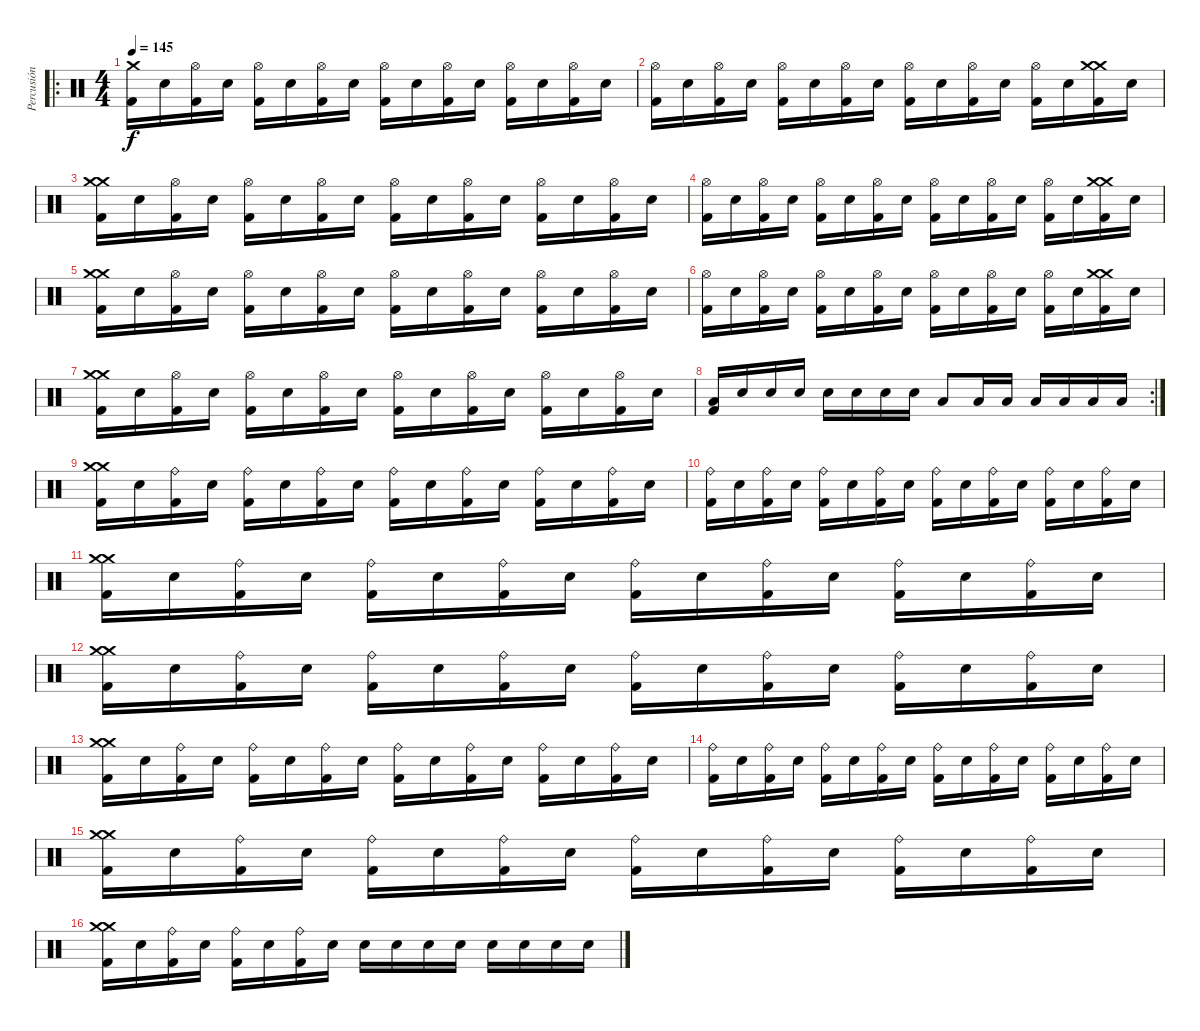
\track ("Percusión" "Percusión") {instrument percussion}
\staff {score}
\articulation defaults
\ro
\ts (4 4)
\tempo 145
\clef neutral
\ks c
("Crash medium (hit)" "Kick (hit) 2").16{dy f} "Snare (hit) 2".16 ("Hi-Hat (open)" "Kick (hit) 2").16 "Snare (hit) 2".16 ("Hi-Hat (open)" "Kick (hit) 2").16 "Snare (hit) 2".16 ("Hi-Hat (open)" "Kick (hit) 2").16 "Snare (hit) 2".16 ("Hi-Hat (open)" "Kick (hit) 2").16 "Snare (hit) 2".16 ("Hi-Hat (open)" "Kick (hit) 2").16 "Snare (hit) 2".16 ("Hi-Hat (open)" "Kick (hit) 2").16 "Snare (hit) 2".16 ("Hi-Hat (open)" "Kick (hit) 2").16 "Snare (hit) 2".16 |
("Hi-Hat (open)" "Kick (hit) 2").16 "Snare (hit) 2".16 ("Hi-Hat (open)" "Kick (hit) 2").16 "Snare (hit) 2".16 ("Hi-Hat (open)" "Kick (hit) 2").16 "Snare (hit) 2".16 ("Hi-Hat (open)" "Kick (hit) 2").16 "Snare (hit) 2".16 ("Hi-Hat (open)" "Kick (hit) 2").16 "Snare (hit) 2".16 ("Hi-Hat (open)" "Kick (hit) 2").16 "Snare (hit) 2".16 ("Hi-Hat (open)" "Kick (hit) 2").16 "Snare (hit) 2".16 ("Crash medium (hit)" "Crash medium (hit)" "Kick (hit) 2").16 "Snare (hit) 2".16 |
("Crash medium (hit)" "Crash medium (hit)" "Kick (hit) 2").16 "Snare (hit) 2".16 ("Hi-Hat (open)" "Kick (hit) 2").16 "Snare (hit) 2".16 ("Hi-Hat (open)" "Kick (hit) 2").16 "Snare (hit) 2".16 ("Hi-Hat (open)" "Kick (hit) 2").16 "Snare (hit) 2".16 ("Hi-Hat (open)" "Kick (hit) 2").16 "Snare (hit) 2".16 ("Hi-Hat (open)" "Kick (hit) 2").16 "Snare (hit) 2".16 ("Hi-Hat (open)" "Kick (hit) 2").16 "Snare (hit) 2".16 ("Hi-Hat (open)" "Kick (hit) 2").16 "Snare (hit) 2".16 |
("Hi-Hat (open)" "Kick (hit) 2").16 "Snare (hit) 2".16 ("Hi-Hat (open)" "Kick (hit) 2").16 "Snare (hit) 2".16 ("Hi-Hat (open)" "Kick (hit) 2").16 "Snare (hit) 2".16 ("Hi-Hat (open)" "Kick (hit) 2").16 "Snare (hit) 2".16 ("Hi-Hat (open)" "Kick (hit) 2").16 "Snare (hit) 2".16 ("Hi-Hat (open)" "Kick (hit) 2").16 "Snare (hit) 2".16 ("Hi-Hat (open)" "Kick (hit) 2").16 "Snare (hit) 2".16 ("Crash medium (hit)" "Crash medium (hit)" "Kick (hit) 2").16 "Snare (hit) 2".16 |
("Crash medium (hit)" "Crash medium (hit)" "Kick (hit) 2").16 "Snare (hit) 2".16 ("Hi-Hat (open)" "Kick (hit) 2").16 "Snare (hit) 2".16 ("Hi-Hat (open)" "Kick (hit) 2").16 "Snare (hit) 2".16 ("Hi-Hat (open)" "Kick (hit) 2").16 "Snare (hit) 2".16 ("Hi-Hat (open)" "Kick (hit) 2").16 "Snare (hit) 2".16 ("Hi-Hat (open)" "Kick (hit) 2").16 "Snare (hit) 2".16 ("Hi-Hat (open)" "Kick (hit) 2").16 "Snare (hit) 2".16 ("Hi-Hat (open)" "Kick (hit) 2").16 "Snare (hit) 2".16 |
("Hi-Hat (open)" "Kick (hit) 2").16 "Snare (hit) 2".16 ("Hi-Hat (open)" "Kick (hit) 2").16 "Snare (hit) 2".16 ("Hi-Hat (open)" "Kick (hit) 2").16 "Snare (hit) 2".16 ("Hi-Hat (open)" "Kick (hit) 2").16 "Snare (hit) 2".16 ("Hi-Hat (open)" "Kick (hit) 2").16 "Snare (hit) 2".16 ("Hi-Hat (open)" "Kick (hit) 2").16 "Snare (hit) 2".16 ("Hi-Hat (open)" "Kick (hit) 2").16 "Snare (hit) 2".16 ("Crash medium (hit)" "Crash medium (hit)" "Kick (hit) 2").16 "Snare (hit) 2".16 |
("Crash medium (hit)" "Crash medium (hit)" "Kick (hit) 2").16 "Snare (hit) 2".16 ("Hi-Hat (open)" "Kick (hit) 2").16 "Snare (hit) 2".16 ("Hi-Hat (open)" "Kick (hit) 2").16 "Snare (hit) 2".16 ("Hi-Hat (open)" "Kick (hit) 2").16 "Snare (hit) 2".16 ("Hi-Hat (open)" "Kick (hit) 2").16 "Snare (hit) 2".16 ("Hi-Hat (open)" "Kick (hit) 2").16 "Snare (hit) 2".16 ("Hi-Hat (open)" "Kick (hit) 2").16 "Snare (hit) 2".16 ("Hi-Hat (open)" "Kick (hit) 2").16 "Snare (hit) 2".16 |
\rc 2
("Low Floor Tom (hit)" "Kick (hit) 2").16 "Snare (hit) 2".16 "Snare (hit) 2".16 "Snare (hit) 2".16 "Snare (hit) 2".16 "Snare (hit) 2".16 "Snare (hit) 2".16 "Snare (hit) 2".16 "Low Tom (hit)".8 "Low Tom (hit)".16 "Low Tom (hit)".16 "Low Tom (hit)".16 "Low Tom (hit)".16 "Low Tom (hit)".16 "Low Tom (hit)".16 |
("Crash medium (hit)" "Crash medium (hit)" "Kick (hit) 2").16 "Snare (hit) 2".16 ("Ride (bell)" "Kick (hit) 2").16 "Snare (hit) 2".16 ("Ride (bell)" "Kick (hit) 2").16 "Snare (hit) 2".16 ("Ride (bell)" "Kick (hit) 2").16 "Snare (hit) 2".16 ("Ride (bell)" "Kick (hit) 2").16 "Snare (hit) 2".16 ("Ride (bell)" "Kick (hit) 2").16 "Snare (hit) 2".16 ("Ride (bell)" "Kick (hit) 2").16 "Snare (hit) 2".16 ("Ride (bell)" "Kick (hit) 2").16 "Snare (hit) 2".16 |
("Ride (bell)" "Kick (hit) 2").16 "Snare (hit) 2".16 ("Ride (bell)" "Kick (hit) 2").16 "Snare (hit) 2".16 ("Ride (bell)" "Kick (hit) 2").16 "Snare (hit) 2".16 ("Ride (bell)" "Kick (hit) 2").16 "Snare (hit) 2".16 ("Ride (bell)" "Kick (hit) 2").16 "Snare (hit) 2".16 ("Ride (bell)" "Kick (hit) 2").16 "Snare (hit) 2".16 ("Ride (bell)" "Kick (hit) 2").16 "Snare (hit) 2".16 ("Ride (bell)" "Kick (hit) 2").16 "Snare (hit) 2".16 |
("Crash medium (hit)" "Crash medium (hit)" "Kick (hit) 2").16 "Snare (hit) 2".16 ("Ride (bell)" "Kick (hit) 2").16 "Snare (hit) 2".16 ("Ride (bell)" "Kick (hit) 2").16 "Snare (hit) 2".16 ("Ride (bell)" "Kick (hit) 2").16 "Snare (hit) 2".16 ("Ride (bell)" "Kick (hit) 2").16 "Snare (hit) 2".16 ("Ride (bell)" "Kick (hit) 2").16 "Snare (hit) 2".16 ("Ride (bell)" "Kick (hit) 2").16 "Snare (hit) 2".16 ("Ride (bell)" "Kick (hit) 2").16 "Snare (hit) 2".16 |
("Crash medium (hit)" "Crash medium (hit)" "Kick (hit) 2").16 "Snare (hit) 2".16 ("Ride (bell)" "Kick (hit) 2").16 "Snare (hit) 2".16 ("Ride (bell)" "Kick (hit) 2").16 "Snare (hit) 2".16 ("Ride (bell)" "Kick (hit) 2").16 "Snare (hit) 2".16 ("Ride (bell)" "Kick (hit) 2").16 "Snare (hit) 2".16 ("Ride (bell)" "Kick (hit) 2").16 "Snare (hit) 2".16 ("Ride (bell)" "Kick (hit) 2").16 "Snare (hit) 2".16 ("Ride (bell)" "Kick (hit) 2").16 "Snare (hit) 2".16 |
("Crash medium (hit)" "Crash medium (hit)" "Kick (hit) 2").16 "Snare (hit) 2".16 ("Ride (bell)" "Kick (hit) 2").16 "Snare (hit) 2".16 ("Ride (bell)" "Kick (hit) 2").16 "Snare (hit) 2".16 ("Ride (bell)" "Kick (hit) 2").16 "Snare (hit) 2".16 ("Ride (bell)" "Kick (hit) 2").16 "Snare (hit) 2".16 ("Ride (bell)" "Kick (hit) 2").16 "Snare (hit) 2".16 ("Ride (bell)" "Kick (hit) 2").16 "Snare (hit) 2".16 ("Ride (bell)" "Kick (hit) 2").16 "Snare (hit) 2".16 |
("Ride (bell)" "Kick (hit) 2").16 "Snare (hit) 2".16 ("Ride (bell)" "Kick (hit) 2").16 "Snare (hit) 2".16 ("Ride (bell)" "Kick (hit) 2").16 "Snare (hit) 2".16 ("Ride (bell)" "Kick (hit) 2").16 "Snare (hit) 2".16 ("Ride (bell)" "Kick (hit) 2").16 "Snare (hit) 2".16 ("Ride (bell)" "Kick (hit) 2").16 "Snare (hit) 2".16 ("Ride (bell)" "Kick (hit) 2").16 "Snare (hit) 2".16 ("Ride (bell)" "Kick (hit) 2").16 "Snare (hit) 2".16 |
("Crash medium (hit)" "Crash medium (hit)" "Kick (hit) 2").16 "Snare (hit) 2".16 ("Ride (bell)" "Kick (hit) 2").16 "Snare (hit) 2".16 ("Ride (bell)" "Kick (hit) 2").16 "Snare (hit) 2".16 ("Ride (bell)" "Kick (hit) 2").16 "Snare (hit) 2".16 ("Ride (bell)" "Kick (hit) 2").16 "Snare (hit) 2".16 ("Ride (bell)" "Kick (hit) 2").16 "Snare (hit) 2".16 ("Ride (bell)" "Kick (hit) 2").16 "Snare (hit) 2".16 ("Ride (bell)" "Kick (hit) 2").16 "Snare (hit) 2".16 |
("Crash medium (hit)" "Crash medium (hit)" "Kick (hit) 2").16 "Snare (hit) 2".16 ("Ride (bell)" "Kick (hit) 2").16 "Snare (hit) 2".16 ("Ride (bell)" "Kick (hit) 2").16 "Snare (hit) 2".16 ("Ride (bell)" "Kick (hit) 2").16 "Snare (hit) 2".16 "Snare (hit) 2".16 "Snare (hit) 2".16 "Snare (hit) 2".16 "Snare (hit) 2".16 "Snare (hit) 2".16 "Snare (hit) 2".16 "Snare (hit) 2".16 "Snare (hit) 2".16
